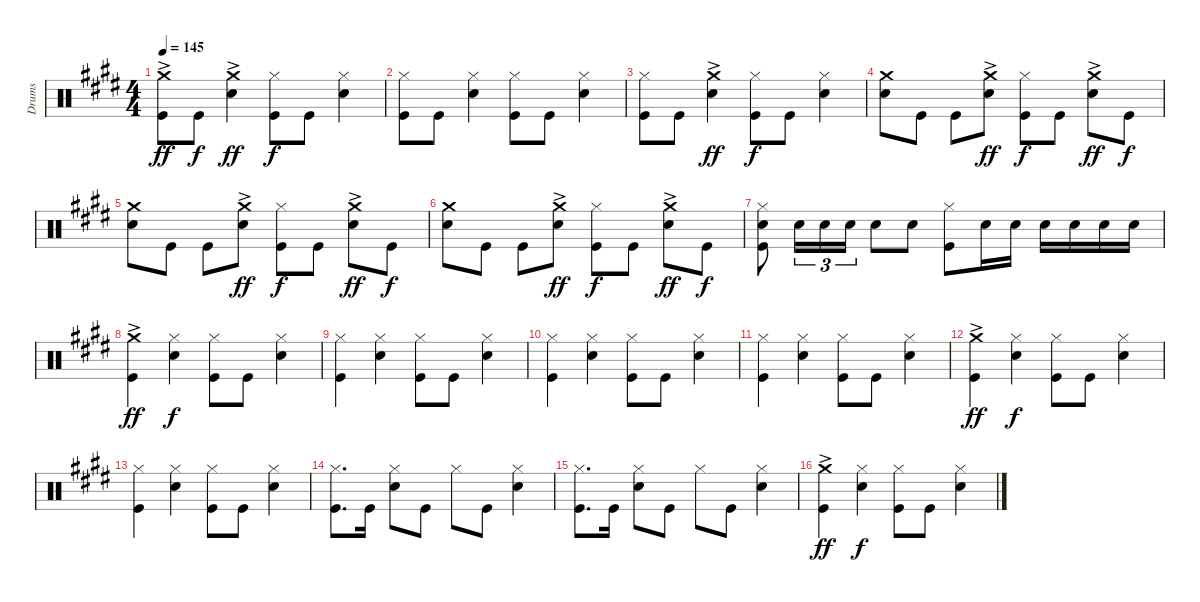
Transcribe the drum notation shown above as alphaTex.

\track ("Drums" "Drums") {instrument percussion}
\staff {score}
\articulation defaults
\ts (4 4)
\tempo 145
\clef neutral
\ks e
("Crash medium (hit)"{ac} "Kick (hit)").8{dy ff} "Kick (hit)".8{dy f} ("Crash medium (hit)"{ac} "Snare (hit) 2").4{dy ff} ("Hi-Hat (closed)" "Kick (hit)").8{dy f} "Kick (hit)".8 ("Hi-Hat (closed)" "Snare (hit) 2").4 |
("Hi-Hat (closed)" "Kick (hit)").8 "Kick (hit)".8 ("Hi-Hat (closed)" "Snare (hit) 2").4 ("Hi-Hat (closed)" "Kick (hit)").8 "Kick (hit)".8 ("Hi-Hat (closed)" "Snare (hit) 2").4 |
("Hi-Hat (closed)" "Kick (hit)").8 "Kick (hit)".8 ("Crash medium (hit)"{ac} "Snare (hit) 2").4{dy ff} ("Hi-Hat (closed)" "Kick (hit)").8{dy f} "Kick (hit)".8 ("Hi-Hat (closed)" "Snare (hit) 2").4 |
("Crash medium (hit)" "Snare (hit) 2").8 "Kick (hit)".8 "Kick (hit)".8 ("Crash medium (hit)"{ac} "Snare (hit) 2").8{dy ff} ("Hi-Hat (closed)" "Kick (hit)").8{dy f} "Kick (hit)".8 ("Crash medium (hit)"{ac} "Snare (hit) 2").8{dy ff} "Kick (hit)".8{dy f} |
("Crash medium (hit)" "Snare (hit) 2").8 "Kick (hit)".8 "Kick (hit)".8 ("Crash medium (hit)"{ac} "Snare (hit) 2").8{dy ff} ("Hi-Hat (closed)" "Kick (hit)").8{dy f} "Kick (hit)".8 ("Crash medium (hit)"{ac} "Snare (hit) 2").8{dy ff} "Kick (hit)".8{dy f} |
("Crash medium (hit)" "Snare (hit) 2").8 "Kick (hit)".8 "Kick (hit)".8 ("Crash medium (hit)"{ac} "Snare (hit) 2").8{dy ff} ("Hi-Hat (closed)" "Kick (hit)").8{dy f} "Kick (hit)".8 ("Crash medium (hit)"{ac} "Snare (hit) 2").8{dy ff} "Kick (hit)".8{dy f} |
("Hi-Hat (closed)" "Snare (hit) 2" "Kick (hit)").8 "Snare (hit) 2".16{tu (3 2)} "Snare (hit) 2".16{tu (3 2)} "Snare (hit) 2".16{tu (3 2)} "Snare (hit) 2".8 "Snare (hit) 2".8 ("Hi-Hat (closed)" "Kick (hit)").8 "Snare (hit) 2".16 "Snare (hit) 2".16 "Snare (hit) 2".16 "Snare (hit) 2".16 "Snare (hit) 2".16 "Snare (hit) 2".16 |
("Crash medium (hit)"{ac} "Kick (hit)").4{dy ff} ("Hi-Hat (closed)" "Snare (hit) 2").4{dy f} ("Hi-Hat (closed)" "Kick (hit)").8 "Kick (hit)".8 ("Hi-Hat (closed)" "Snare (hit) 2").4 |
("Hi-Hat (closed)" "Kick (hit)").4 ("Hi-Hat (closed)" "Snare (hit) 2").4 ("Hi-Hat (closed)" "Kick (hit)").8 "Kick (hit)".8 ("Hi-Hat (closed)" "Snare (hit) 2").4 |
("Hi-Hat (closed)" "Kick (hit)").4 ("Hi-Hat (closed)" "Snare (hit) 2").4 ("Hi-Hat (closed)" "Kick (hit)").8 "Kick (hit)".8 ("Hi-Hat (closed)" "Snare (hit) 2").4 |
("Hi-Hat (closed)" "Kick (hit)").4 ("Hi-Hat (closed)" "Snare (hit) 2").4 ("Hi-Hat (closed)" "Kick (hit)").8 "Kick (hit)".8 ("Hi-Hat (closed)" "Snare (hit) 2").4 |
("Crash medium (hit)"{ac} "Kick (hit)").4{dy ff} ("Hi-Hat (closed)" "Snare (hit) 2").4{dy f} ("Hi-Hat (closed)" "Kick (hit)").8 "Kick (hit)".8 ("Hi-Hat (closed)" "Snare (hit) 2").4 |
("Hi-Hat (closed)" "Kick (hit)").4 ("Hi-Hat (closed)" "Snare (hit) 2").4 ("Hi-Hat (closed)" "Kick (hit)").8 "Kick (hit)".8 ("Hi-Hat (closed)" "Snare (hit) 2").4 |
("Hi-Hat (closed)" "Kick (hit)").8{d} "Kick (hit)".16 ("Hi-Hat (closed)" "Snare (hit) 2").8 "Kick (hit)".8 "Hi-Hat (closed)".8 "Kick (hit)".8 ("Hi-Hat (closed)" "Snare (hit) 2").4 |
("Hi-Hat (closed)" "Kick (hit)").8{d} "Kick (hit)".16 ("Hi-Hat (closed)" "Snare (hit) 2").8 "Kick (hit)".8 "Hi-Hat (closed)".8 "Kick (hit)".8 ("Hi-Hat (closed)" "Snare (hit) 2").4 |
("Crash medium (hit)"{ac} "Kick (hit)").4{dy ff} ("Hi-Hat (closed)" "Snare (hit) 2").4{dy f} ("Hi-Hat (closed)" "Kick (hit)").8 "Kick (hit)".8 ("Hi-Hat (closed)" "Snare (hit) 2").4
